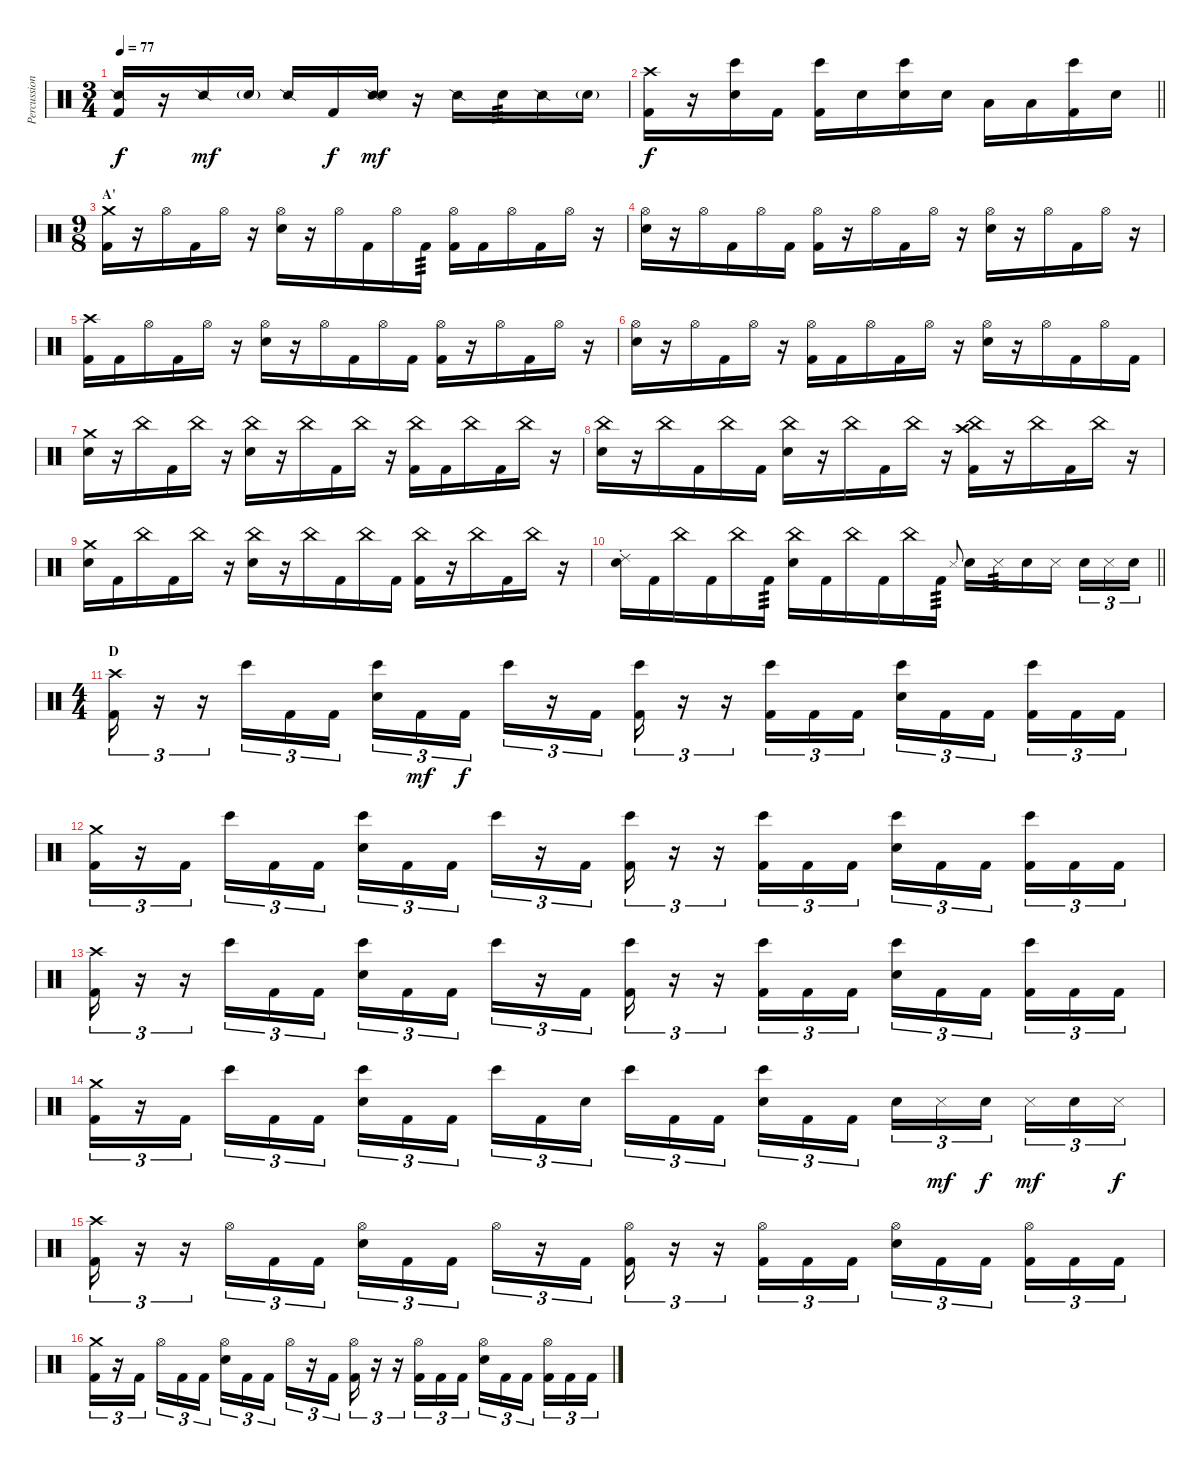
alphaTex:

\track ("Percussion" "Percussion") {instrument percussion}
\staff {score}
\articulation defaults
\ts (3 4)
\tempo 77
\clef neutral
\ks c
("Snare (side stick) 2" "Kick (hit) 2").16{dy f} r.16 "Snare (side stick) 2".16{dy mf} "Snare (hit) 2"{g}.16 "Snare (side stick) 2".16 "Kick (hit) 2".16{dy f} ("Snare (side stick) 2" "Snare (hit) 2").16{dy mf} r.16 "Snare (side stick) 2".16 "Snare (hit) 2".16{tp 3} "Snare (side stick) 2".16 "Snare (hit) 2"{g}.16 |
\barLineRight lightlight
("Crash high (hit)" "Kick (hit) 2").16{dy f} r.16 ("Bongo High (hit)" "Snare (hit) 2").16 "Kick (hit) 2".16 ("Bongo High (hit)" "Kick (hit) 2").16 "Snare (hit) 2".16 ("Bongo High (hit)" "Snare (hit) 2").16 "Snare (hit) 2".16 "Low Tom (hit)".16 "Low Tom (hit)".16 ("Bongo High (hit)" "Kick (hit) 2").16 "Snare (hit) 2".16 |
\ts (9 8)
\section ("" "A'")
("Crash medium (hit)" "Kick (hit) 2").16 r.16 "Hi-Hat (open)".16 "Kick (hit) 2".16 "Hi-Hat (open)".16 r.16 ("Hi-Hat (open)" "Snare (hit) 2").16 r.16 "Hi-Hat (open)".16 "Kick (hit) 2".16 "Hi-Hat (open)".16 "Kick (hit) 2".16{tp 3} ("Hi-Hat (open)" "Kick (hit) 2").16 "Kick (hit) 2".16 "Hi-Hat (open)".16 "Kick (hit) 2".16 "Hi-Hat (open)".16 r.16 |
("Hi-Hat (open)" "Snare (hit) 2").16 r.16 "Hi-Hat (open)".16 "Kick (hit) 2".16 "Hi-Hat (open)".16 "Kick (hit) 2".16 ("Hi-Hat (open)" "Kick (hit) 2").16 r.16 "Hi-Hat (open)".16 "Kick (hit) 2".16 "Hi-Hat (open)".16 r.16 ("Hi-Hat (open)" "Snare (hit) 2").16 r.16 "Hi-Hat (open)".16 "Kick (hit) 2".16 "Hi-Hat (open)".16 r.16 |
("Crash high (hit)" "Kick (hit) 2").16 "Kick (hit) 2".16 "Hi-Hat (open)".16 "Kick (hit) 2".16 "Hi-Hat (open)".16 r.16 ("Hi-Hat (open)" "Snare (hit) 2").16 r.16 "Hi-Hat (open)".16 "Kick (hit) 2".16 "Hi-Hat (open)".16 "Kick (hit) 2".16 ("Hi-Hat (open)" "Kick (hit) 2").16 r.16 "Hi-Hat (open)".16 "Kick (hit) 2".16 "Hi-Hat (open)".16 r.16 |
("Hi-Hat (open)" "Snare (hit) 2").16 r.16 "Hi-Hat (open)".16 "Kick (hit) 2".16 "Hi-Hat (open)".16 r.16 ("Hi-Hat (open)" "Kick (hit) 2").16 "Kick (hit) 2".16 "Hi-Hat (open)".16 "Kick (hit) 2".16 "Hi-Hat (open)".16 r.16 ("Hi-Hat (open)" "Snare (hit) 2").16 r.16 "Hi-Hat (open)".16 "Kick (hit) 2".16 "Hi-Hat (open)".16 "Kick (hit) 2".16 |
("Crash medium (hit)" "Snare (hit) 2").16 r.16 "China (hit)".16 "Kick (hit) 2".16 "China (hit)".16 r.16 ("China (hit)" "Snare (hit) 2").16 r.16 "China (hit)".16 "Kick (hit) 2".16 "China (hit)".16 r.16 ("China (hit)" "Kick (hit) 2").16 "Kick (hit) 2".16 "China (hit)".16 "Kick (hit) 2".16 "China (hit)".16 r.16 |
("China (hit)" "Snare (hit) 2").16 r.16 "China (hit)".16 "Kick (hit) 2".16 "China (hit)".16 "Kick (hit) 2".16 ("China (hit)" "Snare (hit) 2").16 r.16 "China (hit)".16 "Kick (hit) 2".16 "China (hit)".16 r.16 ("China (hit)" "Crash high (hit)" "Kick (hit) 2").16 r.16 "China (hit)".16 "Kick (hit) 2".16 "China (hit)".16 r.16 |
("Crash medium (hit)" "Snare (hit) 2").16 "Kick (hit) 2".16 "China (hit)".16 "Kick (hit) 2".16 "China (hit)".16 r.16 ("China (hit)" "Snare (hit) 2").16 r.16 "China (hit)".16 "Kick (hit) 2".16 "China (hit)".16 "Kick (hit) 2".16 ("China (hit)" "Kick (hit) 2").16 r.16 "China (hit)".16 "Kick (hit) 2".16 "China (hit)".16 r.16 |
\barLineRight lightlight
("Ride (choke) 2" "Snare (hit) 2").16 "Kick (hit) 2".16 "China (hit)".16 "Kick (hit) 2".16 "China (hit)".16 "Kick (hit) 2".16{tp 3} ("China (hit)" "Snare (hit) 2").16 "Kick (hit) 2".16 "China (hit)".16 "Kick (hit) 2".16 "China (hit)".16 "Kick (hit) 2".16{tp 3} "Metronome (hit)".8{gr onbeat} "Snare (hit) 2".16 "Metronome (hit)".16{tp 3} "Snare (hit) 2".16 "Metronome (hit)".16{beam splitsecondary} "Snare (hit) 2".16{tu (3 2)} "Metronome (hit)".16{tu (3 2)} "Snare (hit) 2".16{tu (3 2)} |
\ts (4 4)
\section ("" "D")
("Crash high (hit)" "Kick (hit) 2").16{tu (3 2)} r.16{tu (3 2)} r.16{tu (3 2)} "Bongo High (hit)".16{tu (3 2)} "Kick (hit) 2".16{tu (3 2)} "Kick (hit) 2".16{tu (3 2)} ("Bongo High (hit)" "Snare (hit) 2").16{tu (3 2)} "Kick (hit) 2".16{tu (3 2) dy mf} "Kick (hit) 2".16{tu (3 2) dy f beam splitsecondary} "Bongo High (hit)".16{tu (3 2)} r.16{tu (3 2)} "Kick (hit) 2".16{tu (3 2)} ("Bongo High (hit)" "Kick (hit) 2").16{tu (3 2)} r.16{tu (3 2)} r.16{tu (3 2)} ("Bongo High (hit)" "Kick (hit) 2").16{tu (3 2)} "Kick (hit) 2".16{tu (3 2)} "Kick (hit) 2".16{tu (3 2)} ("Bongo High (hit)" "Snare (hit) 2").16{tu (3 2)} "Kick (hit) 2".16{tu (3 2)} "Kick (hit) 2".16{tu (3 2) beam splitsecondary} ("Bongo High (hit)" "Kick (hit) 2").16{tu (3 2)} "Kick (hit) 2".16{tu (3 2)} "Kick (hit) 2".16{tu (3 2)} |
("Crash medium (hit)" "Kick (hit) 2").16{tu (3 2)} r.16{tu (3 2)} "Kick (hit) 2".16{tu (3 2) beam splitsecondary} "Bongo High (hit)".16{tu (3 2)} "Kick (hit) 2".16{tu (3 2)} "Kick (hit) 2".16{tu (3 2)} ("Bongo High (hit)" "Snare (hit) 2").16{tu (3 2)} "Kick (hit) 2".16{tu (3 2)} "Kick (hit) 2".16{tu (3 2) beam splitsecondary} "Bongo High (hit)".16{tu (3 2)} r.16{tu (3 2)} "Kick (hit) 2".16{tu (3 2)} ("Bongo High (hit)" "Kick (hit) 2").16{tu (3 2)} r.16{tu (3 2)} r.16{tu (3 2)} ("Bongo High (hit)" "Kick (hit) 2").16{tu (3 2)} "Kick (hit) 2".16{tu (3 2)} "Kick (hit) 2".16{tu (3 2)} ("Bongo High (hit)" "Snare (hit) 2").16{tu (3 2)} "Kick (hit) 2".16{tu (3 2)} "Kick (hit) 2".16{tu (3 2) beam splitsecondary} ("Bongo High (hit)" "Kick (hit) 2").16{tu (3 2)} "Kick (hit) 2".16{tu (3 2)} "Kick (hit) 2".16{tu (3 2)} |
("Crash high (hit)" "Kick (hit) 2").16{tu (3 2)} r.16{tu (3 2)} r.16{tu (3 2)} "Bongo High (hit)".16{tu (3 2)} "Kick (hit) 2".16{tu (3 2)} "Kick (hit) 2".16{tu (3 2)} ("Bongo High (hit)" "Snare (hit) 2").16{tu (3 2)} "Kick (hit) 2".16{tu (3 2)} "Kick (hit) 2".16{tu (3 2) beam splitsecondary} "Bongo High (hit)".16{tu (3 2)} r.16{tu (3 2)} "Kick (hit) 2".16{tu (3 2)} ("Bongo High (hit)" "Kick (hit) 2").16{tu (3 2)} r.16{tu (3 2)} r.16{tu (3 2)} ("Bongo High (hit)" "Kick (hit) 2").16{tu (3 2)} "Kick (hit) 2".16{tu (3 2)} "Kick (hit) 2".16{tu (3 2)} ("Bongo High (hit)" "Snare (hit) 2").16{tu (3 2)} "Kick (hit) 2".16{tu (3 2)} "Kick (hit) 2".16{tu (3 2) beam splitsecondary} ("Bongo High (hit)" "Kick (hit) 2").16{tu (3 2)} "Kick (hit) 2".16{tu (3 2)} "Kick (hit) 2".16{tu (3 2)} |
("Crash medium (hit)" "Kick (hit) 2").16{tu (3 2)} r.16{tu (3 2)} "Kick (hit) 2".16{tu (3 2) beam splitsecondary} "Bongo High (hit)".16{tu (3 2)} "Kick (hit) 2".16{tu (3 2)} "Kick (hit) 2".16{tu (3 2)} ("Bongo High (hit)" "Snare (hit) 2").16{tu (3 2)} "Kick (hit) 2".16{tu (3 2)} "Kick (hit) 2".16{tu (3 2) beam splitsecondary} "Bongo High (hit)".16{tu (3 2)} "Kick (hit) 2".16{tu (3 2)} "Snare (hit) 2".16{tu (3 2)} "Bongo High (hit)".16{tu (3 2)} "Kick (hit) 2".16{tu (3 2)} "Kick (hit) 2".16{tu (3 2) beam splitsecondary} ("Bongo High (hit)" "Snare (hit) 2").16{tu (3 2)} "Kick (hit) 2".16{tu (3 2)} "Kick (hit) 2".16{tu (3 2)} "Snare (hit) 2".16{tu (3 2)} "Metronome (hit)".16{tu (3 2) dy mf} "Snare (hit) 2".16{tu (3 2) dy f beam splitsecondary} "Metronome (hit)".16{tu (3 2) dy mf} "Snare (hit) 2".16{tu (3 2)} "Metronome (hit)".16{tu (3 2) dy f} |
("Crash high (hit)" "Kick (hit) 2").16{tu (3 2)} r.16{tu (3 2)} r.16{tu (3 2)} "Hi-Hat (open)".16{tu (3 2)} "Kick (hit) 2".16{tu (3 2)} "Kick (hit) 2".16{tu (3 2)} ("Hi-Hat (open)" "Snare (hit) 2").16{tu (3 2)} "Kick (hit) 2".16{tu (3 2)} "Kick (hit) 2".16{tu (3 2) beam splitsecondary} "Hi-Hat (open)".16{tu (3 2)} r.16{tu (3 2)} "Kick (hit) 2".16{tu (3 2)} ("Hi-Hat (open)" "Kick (hit) 2").16{tu (3 2)} r.16{tu (3 2)} r.16{tu (3 2)} ("Hi-Hat (open)" "Kick (hit) 2").16{tu (3 2)} "Kick (hit) 2".16{tu (3 2)} "Kick (hit) 2".16{tu (3 2)} ("Hi-Hat (open)" "Snare (hit) 2").16{tu (3 2)} "Kick (hit) 2".16{tu (3 2)} "Kick (hit) 2".16{tu (3 2) beam splitsecondary} ("Hi-Hat (open)" "Kick (hit) 2").16{tu (3 2)} "Kick (hit) 2".16{tu (3 2)} "Kick (hit) 2".16{tu (3 2)} |
("Crash medium (hit)" "Kick (hit) 2").16{tu (3 2)} r.16{tu (3 2)} "Kick (hit) 2".16{tu (3 2) beam splitsecondary} "Hi-Hat (open)".16{tu (3 2)} "Kick (hit) 2".16{tu (3 2)} "Kick (hit) 2".16{tu (3 2)} ("Hi-Hat (open)" "Snare (hit) 2").16{tu (3 2)} "Kick (hit) 2".16{tu (3 2)} "Kick (hit) 2".16{tu (3 2) beam splitsecondary} "Hi-Hat (open)".16{tu (3 2)} r.16{tu (3 2)} "Kick (hit) 2".16{tu (3 2)} ("Hi-Hat (open)" "Kick (hit) 2").16{tu (3 2)} r.16{tu (3 2)} r.16{tu (3 2)} ("Hi-Hat (open)" "Kick (hit) 2").16{tu (3 2)} "Kick (hit) 2".16{tu (3 2)} "Kick (hit) 2".16{tu (3 2)} ("Hi-Hat (open)" "Snare (hit) 2").16{tu (3 2)} "Kick (hit) 2".16{tu (3 2)} "Kick (hit) 2".16{tu (3 2) beam splitsecondary} ("Hi-Hat (open)" "Kick (hit) 2").16{tu (3 2)} "Kick (hit) 2".16{tu (3 2)} "Kick (hit) 2".16{tu (3 2)}
